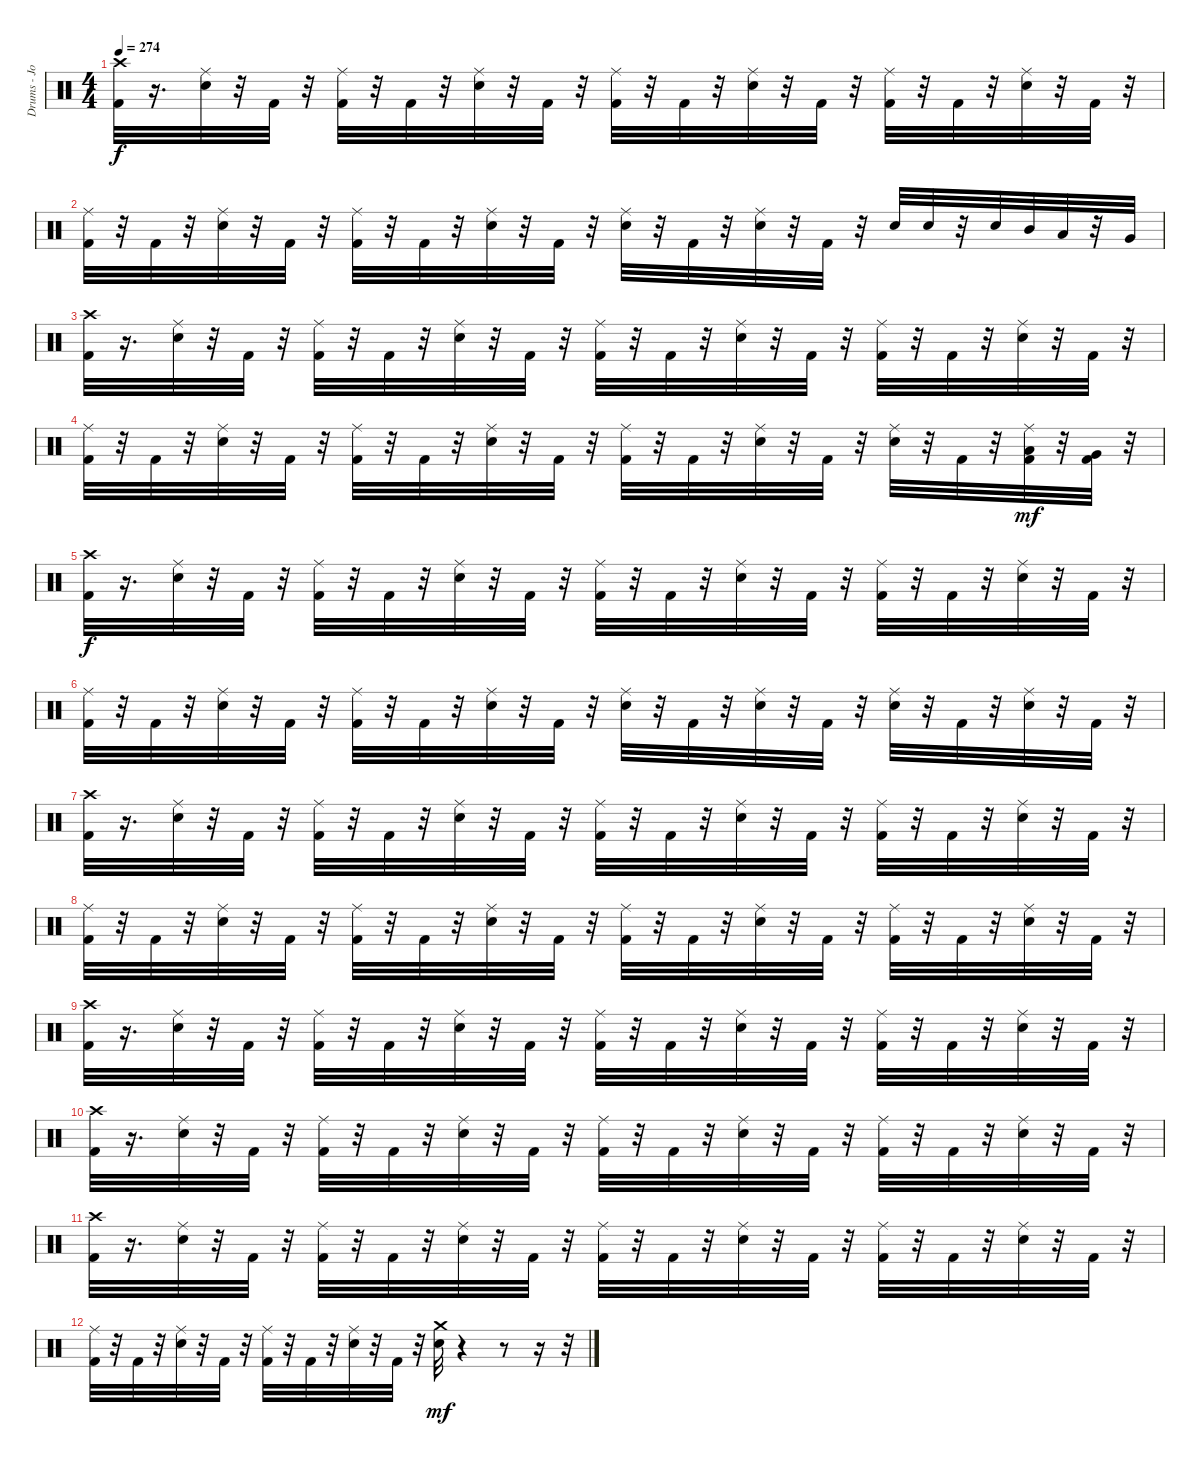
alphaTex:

\track ("Drums - John dette" "Drums - Jo") {instrument percussion}
\staff {score}
\articulation defaults
\ts (4 4)
\tempo 274
\clef neutral
\ks c
("Kick (hit) 2" "Crash high (hit)").32{dy f} r.16{d} ("Snare (hit) 2" "Ride (middle)").32 r.32 "Kick (hit) 2".32 r.32 ("Kick (hit) 2" "Ride (middle)").32 r.32 "Kick (hit) 2".32 r.32 ("Snare (hit) 2" "Ride (middle)").32 r.32 "Kick (hit) 2".32 r.32 ("Kick (hit) 2" "Ride (middle)").32 r.32 "Kick (hit) 2".32 r.32 ("Snare (hit) 2" "Ride (middle)").32 r.32 "Kick (hit) 2".32 r.32 ("Kick (hit) 2" "Ride (middle)").32 r.32 "Kick (hit) 2".32 r.32 ("Snare (hit) 2" "Ride (middle)").32 r.32 "Kick (hit) 2".32 r.32 |
("Kick (hit) 2" "Ride (middle)").32 r.32 "Kick (hit) 2".32 r.32 ("Snare (hit) 2" "Ride (middle)").32 r.32 "Kick (hit) 2".32 r.32 ("Kick (hit) 2" "Ride (middle)").32 r.32 "Kick (hit) 2".32 r.32 ("Snare (hit) 2" "Ride (middle)").32 r.32 "Kick (hit) 2".32 r.32 ("Snare (hit) 2" "Ride (middle)").32 r.32 "Kick (hit) 2".32 r.32 ("Snare (hit) 2" "Ride (middle)").32 r.32 "Kick (hit) 2".32 r.32 "Snare (hit) 2".32 "Snare (hit) 2".32 r.32 "Snare (hit) 2".32 "Mid Tom (hit)".32 "Low Tom (hit)".32 r.32 "Very Low Tom (hit)".32 |
("Kick (hit) 2" "Crash high (hit)").32 r.16{d} ("Snare (hit) 2" "Ride (middle)").32 r.32 "Kick (hit) 2".32 r.32 ("Kick (hit) 2" "Ride (middle)").32 r.32 "Kick (hit) 2".32 r.32 ("Snare (hit) 2" "Ride (middle)").32 r.32 "Kick (hit) 2".32 r.32 ("Kick (hit) 2" "Ride (middle)").32 r.32 "Kick (hit) 2".32 r.32 ("Snare (hit) 2" "Ride (middle)").32 r.32 "Kick (hit) 2".32 r.32 ("Kick (hit) 2" "Ride (middle)").32 r.32 "Kick (hit) 2".32 r.32 ("Snare (hit) 2" "Ride (middle)").32 r.32 "Kick (hit) 2".32 r.32 |
("Kick (hit) 2" "Ride (middle)").32 r.32 "Kick (hit) 2".32 r.32 ("Snare (hit) 2" "Ride (middle)").32 r.32 "Kick (hit) 2".32 r.32 ("Kick (hit) 2" "Ride (middle)").32 r.32 "Kick (hit) 2".32 r.32 ("Snare (hit) 2" "Ride (middle)").32 r.32 "Kick (hit) 2".32 r.32 ("Kick (hit) 2" "Ride (middle)").32 r.32 "Kick (hit) 2".32 r.32 ("Snare (hit) 2" "Ride (middle)").32 r.32 "Kick (hit) 2".32 r.32 ("Snare (hit) 2" "Ride (middle)").32 r.32 "Kick (hit) 2".32 r.32 ("Kick (hit) 2" "Low Tom (hit)" "Ride (middle)").32{dy mf} r.32 ("Kick (hit) 2" "Very Low Tom (hit)").32 r.32 |
("Kick (hit) 2" "Crash high (hit)").32{dy f} r.16{d} ("Snare (hit) 2" "Ride (middle)").32 r.32 "Kick (hit) 2".32 r.32 ("Kick (hit) 2" "Ride (middle)").32 r.32 "Kick (hit) 2".32 r.32 ("Snare (hit) 2" "Ride (middle)").32 r.32 "Kick (hit) 2".32 r.32 ("Kick (hit) 2" "Ride (middle)").32 r.32 "Kick (hit) 2".32 r.32 ("Snare (hit) 2" "Ride (middle)").32 r.32 "Kick (hit) 2".32 r.32 ("Kick (hit) 2" "Ride (middle)").32 r.32 "Kick (hit) 2".32 r.32 ("Snare (hit) 2" "Ride (middle)").32 r.32 "Kick (hit) 2".32 r.32 |
("Kick (hit) 2" "Ride (middle)").32 r.32 "Kick (hit) 2".32 r.32 ("Snare (hit) 2" "Ride (middle)").32 r.32 "Kick (hit) 2".32 r.32 ("Kick (hit) 2" "Ride (middle)").32 r.32 "Kick (hit) 2".32 r.32 ("Snare (hit) 2" "Ride (middle)").32 r.32 "Kick (hit) 2".32 r.32 ("Snare (hit) 2" "Ride (middle)").32 r.32 "Kick (hit) 2".32 r.32 ("Snare (hit) 2" "Ride (middle)").32 r.32 "Kick (hit) 2".32 r.32 ("Snare (hit) 2" "Ride (middle)").32 r.32 "Kick (hit) 2".32 r.32 ("Snare (hit) 2" "Ride (middle)").32 r.32 "Kick (hit) 2".32 r.32 |
("Kick (hit) 2" "Crash high (hit)").32 r.16{d} ("Snare (hit) 2" "Ride (middle)").32 r.32 "Kick (hit) 2".32 r.32 ("Kick (hit) 2" "Ride (middle)").32 r.32 "Kick (hit) 2".32 r.32 ("Snare (hit) 2" "Ride (middle)").32 r.32 "Kick (hit) 2".32 r.32 ("Kick (hit) 2" "Ride (middle)").32 r.32 "Kick (hit) 2".32 r.32 ("Snare (hit) 2" "Ride (middle)").32 r.32 "Kick (hit) 2".32 r.32 ("Kick (hit) 2" "Ride (middle)").32 r.32 "Kick (hit) 2".32 r.32 ("Snare (hit) 2" "Ride (middle)").32 r.32 "Kick (hit) 2".32 r.32 |
("Kick (hit) 2" "Ride (middle)").32 r.32 "Kick (hit) 2".32 r.32 ("Snare (hit) 2" "Ride (middle)").32 r.32 "Kick (hit) 2".32 r.32 ("Kick (hit) 2" "Ride (middle)").32 r.32 "Kick (hit) 2".32 r.32 ("Snare (hit) 2" "Ride (middle)").32 r.32 "Kick (hit) 2".32 r.32 ("Kick (hit) 2" "Ride (middle)").32 r.32 "Kick (hit) 2".32 r.32 ("Snare (hit) 2" "Ride (middle)").32 r.32 "Kick (hit) 2".32 r.32 ("Kick (hit) 2" "Ride (middle)").32 r.32 "Kick (hit) 2".32 r.32 ("Snare (hit) 2" "Ride (middle)").32 r.32 "Kick (hit) 2".32 r.32 |
("Kick (hit) 2" "Crash high (hit)").32 r.16{d} ("Snare (hit) 2" "Ride (middle)").32 r.32 "Kick (hit) 2".32 r.32 ("Kick (hit) 2" "Ride (middle)").32 r.32 "Kick (hit) 2".32 r.32 ("Snare (hit) 2" "Ride (middle)").32 r.32 "Kick (hit) 2".32 r.32 ("Kick (hit) 2" "Ride (middle)").32 r.32 "Kick (hit) 2".32 r.32 ("Snare (hit) 2" "Ride (middle)").32 r.32 "Kick (hit) 2".32 r.32 ("Kick (hit) 2" "Ride (middle)").32 r.32 "Kick (hit) 2".32 r.32 ("Snare (hit) 2" "Ride (middle)").32 r.32 "Kick (hit) 2".32 r.32 |
("Kick (hit) 2" "Crash high (hit)").32 r.16{d} ("Snare (hit) 2" "Ride (middle)").32 r.32 "Kick (hit) 2".32 r.32 ("Kick (hit) 2" "Ride (middle)").32 r.32 "Kick (hit) 2".32 r.32 ("Snare (hit) 2" "Ride (middle)").32 r.32 "Kick (hit) 2".32 r.32 ("Kick (hit) 2" "Ride (middle)").32 r.32 "Kick (hit) 2".32 r.32 ("Snare (hit) 2" "Ride (middle)").32 r.32 "Kick (hit) 2".32 r.32 ("Kick (hit) 2" "Ride (middle)").32 r.32 "Kick (hit) 2".32 r.32 ("Snare (hit) 2" "Ride (middle)").32 r.32 "Kick (hit) 2".32 r.32 |
("Kick (hit) 2" "Crash high (hit)").32 r.16{d} ("Snare (hit) 2" "Ride (middle)").32 r.32 "Kick (hit) 2".32 r.32 ("Kick (hit) 2" "Ride (middle)").32 r.32 "Kick (hit) 2".32 r.32 ("Snare (hit) 2" "Ride (middle)").32 r.32 "Kick (hit) 2".32 r.32 ("Kick (hit) 2" "Ride (middle)").32 r.32 "Kick (hit) 2".32 r.32 ("Snare (hit) 2" "Ride (middle)").32 r.32 "Kick (hit) 2".32 r.32 ("Kick (hit) 2" "Ride (middle)").32 r.32 "Kick (hit) 2".32 r.32 ("Snare (hit) 2" "Ride (middle)").32 r.32 "Kick (hit) 2".32 r.32 |
("Kick (hit) 2" "Ride (middle)").32 r.32 "Kick (hit) 2".32 r.32 ("Snare (hit) 2" "Ride (middle)").32 r.32 "Kick (hit) 2".32 r.32 ("Kick (hit) 2" "Ride (middle)").32 r.32 "Kick (hit) 2".32 r.32 ("Snare (hit) 2" "Ride (middle)").32 r.32 "Kick (hit) 2".32 r.32 ("Snare (hit) 2" "Crash medium (hit)").32{dy mf} r.4 r.8 r.16 r.32
